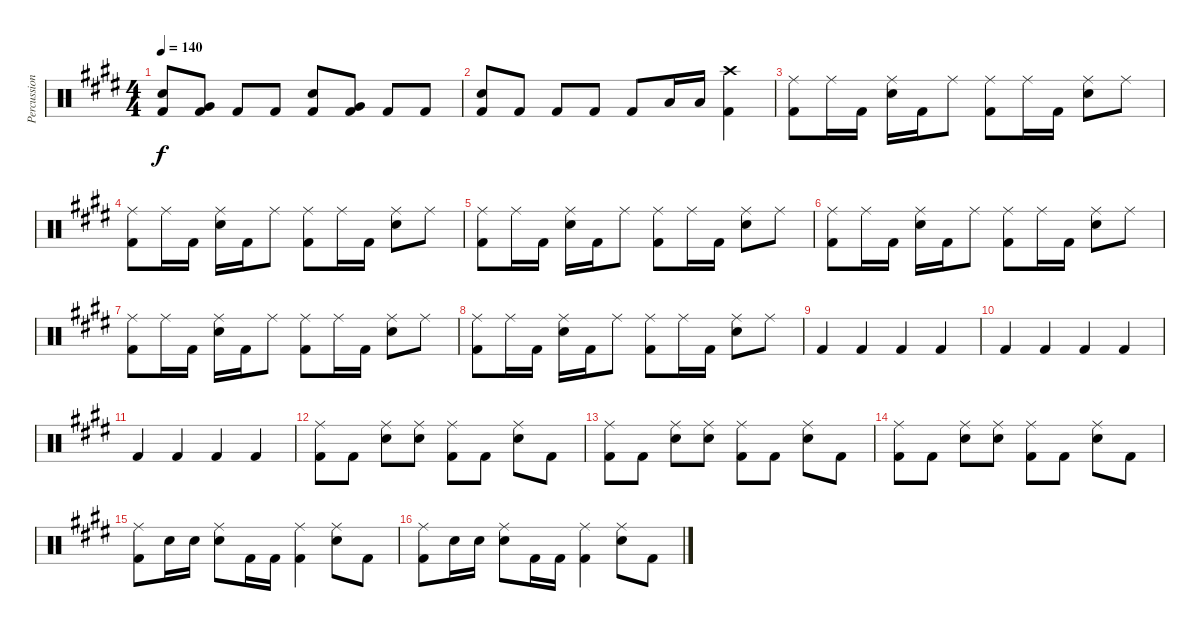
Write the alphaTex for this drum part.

\track ("Percussion" "Percussion") {instrument percussion}
\staff {score}
\articulation defaults
\ts (4 4)
\tempo 140
\clef neutral
\ks c#minor
("Kick (hit) 2" "Electric Snare (hit)").8{dy f} ("Kick (hit) 2" "Very Low Tom (hit)").8 "Kick (hit) 2".8 "Kick (hit) 2".8 ("Kick (hit) 2" "Electric Snare (hit)").8 ("Kick (hit) 2" "Very Low Tom (hit)").8 "Kick (hit) 2".8 "Kick (hit) 2".8 |
("Kick (hit) 2" "Electric Snare (hit)").8 "Kick (hit) 2".8 "Kick (hit) 2".8 "Kick (hit) 2".8 "Kick (hit) 2".8 "Low Tom (hit)".16 "Low Tom (hit)".16 ("Kick (hit) 2" "Crash high (hit)").4 |
("Kick (hit) 2" "Ride (middle)").8 "Ride (middle)".16 "Kick (hit) 2".16 ("Ride (middle)" "Electric Snare (hit)").16 "Kick (hit) 2".16 "Ride (middle)".8 ("Kick (hit) 2" "Ride (middle)").8 "Ride (middle)".16 "Kick (hit) 2".16 ("Ride (middle)" "Electric Snare (hit)").8 "Ride (middle)".8 |
("Kick (hit) 2" "Ride (middle)").8 "Ride (middle)".16 "Kick (hit) 2".16 ("Ride (middle)" "Electric Snare (hit)").16 "Kick (hit) 2".16 "Ride (middle)".8 ("Kick (hit) 2" "Ride (middle)").8 "Ride (middle)".16 "Kick (hit) 2".16 ("Ride (middle)" "Electric Snare (hit)").8 "Ride (middle)".8 |
("Kick (hit) 2" "Ride (middle)").8 "Ride (middle)".16 "Kick (hit) 2".16 ("Ride (middle)" "Electric Snare (hit)").16 "Kick (hit) 2".16 "Ride (middle)".8 ("Kick (hit) 2" "Ride (middle)").8 "Ride (middle)".16 "Kick (hit) 2".16 ("Ride (middle)" "Electric Snare (hit)").8 "Ride (middle)".8 |
("Kick (hit) 2" "Ride (middle)").8 "Ride (middle)".16 "Kick (hit) 2".16 ("Ride (middle)" "Electric Snare (hit)").16 "Kick (hit) 2".16 "Ride (middle)".8 ("Kick (hit) 2" "Ride (middle)").8 "Ride (middle)".16 "Kick (hit) 2".16 ("Ride (middle)" "Electric Snare (hit)").8 "Ride (middle)".8 |
("Kick (hit) 2" "Ride (middle)").8 "Ride (middle)".16 "Kick (hit) 2".16 ("Ride (middle)" "Electric Snare (hit)").16 "Kick (hit) 2".16 "Ride (middle)".8 ("Kick (hit) 2" "Ride (middle)").8 "Ride (middle)".16 "Kick (hit) 2".16 ("Ride (middle)" "Electric Snare (hit)").8 "Ride (middle)".8 |
("Kick (hit) 2" "Ride (middle)").8 "Ride (middle)".16 "Kick (hit) 2".16 ("Ride (middle)" "Electric Snare (hit)").16 "Kick (hit) 2".16 "Ride (middle)".8 ("Kick (hit) 2" "Ride (middle)").8 "Ride (middle)".16 "Kick (hit) 2".16 ("Ride (middle)" "Electric Snare (hit)").8 "Ride (middle)".8 |
"Kick (hit) 2".4 "Kick (hit) 2".4 "Kick (hit) 2".4 "Kick (hit) 2".4 |
"Kick (hit) 2".4 "Kick (hit) 2".4 "Kick (hit) 2".4 "Kick (hit) 2".4 |
"Kick (hit) 2".4 "Kick (hit) 2".4 "Kick (hit) 2".4 "Kick (hit) 2".4 |
("Kick (hit) 2" "Ride (middle)").8 "Kick (hit) 2".8 ("Ride (middle)" "Electric Snare (hit)").8 ("Ride (middle)" "Electric Snare (hit)").8 ("Kick (hit) 2" "Ride (middle)").8 "Kick (hit) 2".8 ("Ride (middle)" "Electric Snare (hit)").8 "Kick (hit) 2".8 |
("Kick (hit) 2" "Ride (middle)").8 "Kick (hit) 2".8 ("Ride (middle)" "Electric Snare (hit)").8 ("Ride (middle)" "Electric Snare (hit)").8 ("Kick (hit) 2" "Ride (middle)").8 "Kick (hit) 2".8 ("Ride (middle)" "Electric Snare (hit)").8 "Kick (hit) 2".8 |
("Kick (hit) 2" "Ride (middle)").8 "Kick (hit) 2".8 ("Ride (middle)" "Electric Snare (hit)").8 ("Ride (middle)" "Electric Snare (hit)").8 ("Kick (hit) 2" "Ride (middle)").8 "Kick (hit) 2".8 ("Ride (middle)" "Electric Snare (hit)").8 "Kick (hit) 2".8 |
("Kick (hit) 2" "Ride (middle)").8 "Electric Snare (hit)".16 "Electric Snare (hit)".16 ("Electric Snare (hit)" "Ride (middle)").8 "Kick (hit) 2".16 "Kick (hit) 2".16 ("Kick (hit) 2" "Ride (middle)").4 ("Electric Snare (hit)" "Ride (middle)").8 "Kick (hit) 2".8 |
("Kick (hit) 2" "Ride (middle)").8 "Electric Snare (hit)".16 "Electric Snare (hit)".16 ("Electric Snare (hit)" "Ride (middle)").8 "Kick (hit) 2".16 "Kick (hit) 2".16 ("Kick (hit) 2" "Ride (middle)").4 ("Electric Snare (hit)" "Ride (middle)").8 "Kick (hit) 2".8
